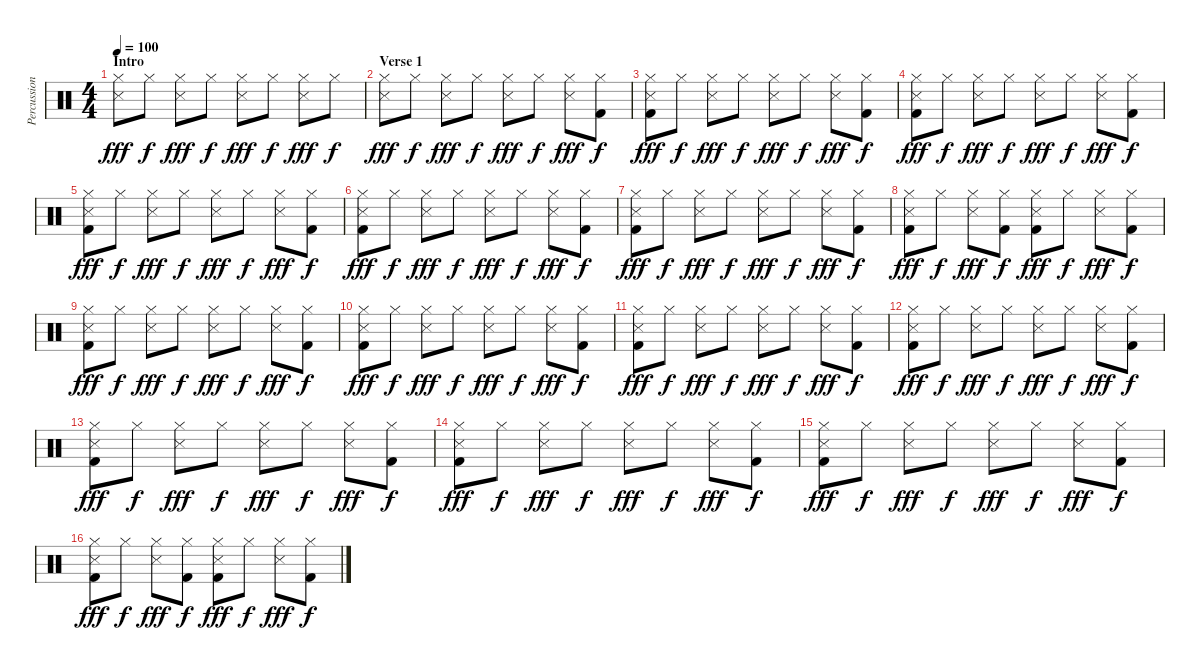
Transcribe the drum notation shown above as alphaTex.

\track ("Percussion" "Percussion") {instrument percussion}
\staff {score}
\articulation defaults
\ts (4 4)
\section ("" "Intro")
\tempo 100
\clef neutral
\ks c
("Hi-Hat (closed)" "Snare (side stick) 3").8{dy fff} "Hi-Hat (closed)".8{dy f} ("Hi-Hat (closed)" "Snare (side stick) 3").8{dy fff} "Hi-Hat (closed)".8{dy f} ("Snare (side stick) 3" "Hi-Hat (closed)").8{dy fff} "Hi-Hat (closed)".8{dy f} ("Hi-Hat (closed)" "Snare (side stick) 3").8{dy fff} "Hi-Hat (closed)".8{dy f} |
\section ("" "Verse 1")
("Hi-Hat (closed)" "Snare (side stick) 3").8{dy fff} "Hi-Hat (closed)".8{dy f} ("Hi-Hat (closed)" "Snare (side stick) 3").8{dy fff} "Hi-Hat (closed)".8{dy f} ("Snare (side stick) 3" "Hi-Hat (closed)").8{dy fff} "Hi-Hat (closed)".8{dy f} ("Hi-Hat (closed)" "Snare (side stick) 3").8{dy fff} ("Hi-Hat (closed)" "Kick (hit) 2").8{dy f} |
("Hi-Hat (closed)" "Snare (side stick) 3" "Kick (hit) 2").8{dy fff} "Hi-Hat (closed)".8{dy f} ("Hi-Hat (closed)" "Snare (side stick) 3").8{dy fff} "Hi-Hat (closed)".8{dy f} ("Snare (side stick) 3" "Hi-Hat (closed)").8{dy fff} "Hi-Hat (closed)".8{dy f} ("Hi-Hat (closed)" "Snare (side stick) 3").8{dy fff} ("Hi-Hat (closed)" "Kick (hit) 2").8{dy f} |
("Hi-Hat (closed)" "Snare (side stick) 3" "Kick (hit) 2").8{dy fff} "Hi-Hat (closed)".8{dy f} ("Hi-Hat (closed)" "Snare (side stick) 3").8{dy fff} "Hi-Hat (closed)".8{dy f} ("Snare (side stick) 3" "Hi-Hat (closed)").8{dy fff} "Hi-Hat (closed)".8{dy f} ("Hi-Hat (closed)" "Snare (side stick) 3").8{dy fff} ("Hi-Hat (closed)" "Kick (hit) 2").8{dy f} |
("Hi-Hat (closed)" "Snare (side stick) 3" "Kick (hit) 2").8{dy fff} "Hi-Hat (closed)".8{dy f} ("Hi-Hat (closed)" "Snare (side stick) 3").8{dy fff} "Hi-Hat (closed)".8{dy f} ("Snare (side stick) 3" "Hi-Hat (closed)").8{dy fff} "Hi-Hat (closed)".8{dy f} ("Hi-Hat (closed)" "Snare (side stick) 3").8{dy fff} ("Hi-Hat (closed)" "Kick (hit) 2").8{dy f} |
("Hi-Hat (closed)" "Snare (side stick) 3" "Kick (hit) 2").8{dy fff} "Hi-Hat (closed)".8{dy f} ("Hi-Hat (closed)" "Snare (side stick) 3").8{dy fff} "Hi-Hat (closed)".8{dy f} ("Snare (side stick) 3" "Hi-Hat (closed)").8{dy fff} "Hi-Hat (closed)".8{dy f} ("Hi-Hat (closed)" "Snare (side stick) 3").8{dy fff} ("Hi-Hat (closed)" "Kick (hit) 2").8{dy f} |
("Hi-Hat (closed)" "Snare (side stick) 3" "Kick (hit) 2").8{dy fff} "Hi-Hat (closed)".8{dy f} ("Hi-Hat (closed)" "Snare (side stick) 3").8{dy fff} "Hi-Hat (closed)".8{dy f} ("Snare (side stick) 3" "Hi-Hat (closed)").8{dy fff} "Hi-Hat (closed)".8{dy f} ("Hi-Hat (closed)" "Snare (side stick) 3").8{dy fff} ("Hi-Hat (closed)" "Kick (hit) 2").8{dy f} |
("Hi-Hat (closed)" "Snare (side stick) 3" "Kick (hit) 2").8{dy fff} "Hi-Hat (closed)".8{dy f} ("Hi-Hat (closed)" "Snare (side stick) 3").8{dy fff} ("Hi-Hat (closed)" "Kick (hit) 2").8{dy f} ("Snare (side stick) 3" "Hi-Hat (closed)" "Kick (hit) 2").8{dy fff} "Hi-Hat (closed)".8{dy f} ("Hi-Hat (closed)" "Snare (side stick) 3").8{dy fff} ("Hi-Hat (closed)" "Kick (hit) 2").8{dy f} |
("Hi-Hat (closed)" "Snare (side stick) 3" "Kick (hit) 2").8{dy fff} "Hi-Hat (closed)".8{dy f} ("Hi-Hat (closed)" "Snare (side stick) 3").8{dy fff} "Hi-Hat (closed)".8{dy f} ("Snare (side stick) 3" "Hi-Hat (closed)").8{dy fff} "Hi-Hat (closed)".8{dy f} ("Hi-Hat (closed)" "Snare (side stick) 3").8{dy fff} ("Hi-Hat (closed)" "Kick (hit) 2").8{dy f} |
("Hi-Hat (closed)" "Snare (side stick) 3" "Kick (hit) 2").8{dy fff} "Hi-Hat (closed)".8{dy f} ("Hi-Hat (closed)" "Snare (side stick) 3").8{dy fff} "Hi-Hat (closed)".8{dy f} ("Snare (side stick) 3" "Hi-Hat (closed)").8{dy fff} "Hi-Hat (closed)".8{dy f} ("Hi-Hat (closed)" "Snare (side stick) 3").8{dy fff} ("Hi-Hat (closed)" "Kick (hit) 2").8{dy f} |
("Hi-Hat (closed)" "Snare (side stick) 3" "Kick (hit) 2").8{dy fff} "Hi-Hat (closed)".8{dy f} ("Hi-Hat (closed)" "Snare (side stick) 3").8{dy fff} "Hi-Hat (closed)".8{dy f} ("Snare (side stick) 3" "Hi-Hat (closed)").8{dy fff} "Hi-Hat (closed)".8{dy f} ("Hi-Hat (closed)" "Snare (side stick) 3").8{dy fff} ("Hi-Hat (closed)" "Kick (hit) 2").8{dy f} |
("Hi-Hat (closed)" "Snare (side stick) 3" "Kick (hit) 2").8{dy fff} "Hi-Hat (closed)".8{dy f} ("Hi-Hat (closed)" "Snare (side stick) 3").8{dy fff} "Hi-Hat (closed)".8{dy f} ("Snare (side stick) 3" "Hi-Hat (closed)").8{dy fff} "Hi-Hat (closed)".8{dy f} ("Hi-Hat (closed)" "Snare (side stick) 3").8{dy fff} ("Hi-Hat (closed)" "Kick (hit) 2").8{dy f} |
("Hi-Hat (closed)" "Snare (side stick) 3" "Kick (hit) 2").8{dy fff} "Hi-Hat (closed)".8{dy f} ("Hi-Hat (closed)" "Snare (side stick) 3").8{dy fff} "Hi-Hat (closed)".8{dy f} ("Snare (side stick) 3" "Hi-Hat (closed)").8{dy fff} "Hi-Hat (closed)".8{dy f} ("Hi-Hat (closed)" "Snare (side stick) 3").8{dy fff} ("Hi-Hat (closed)" "Kick (hit) 2").8{dy f} |
("Hi-Hat (closed)" "Snare (side stick) 3" "Kick (hit) 2").8{dy fff} "Hi-Hat (closed)".8{dy f} ("Hi-Hat (closed)" "Snare (side stick) 3").8{dy fff} "Hi-Hat (closed)".8{dy f} ("Snare (side stick) 3" "Hi-Hat (closed)").8{dy fff} "Hi-Hat (closed)".8{dy f} ("Hi-Hat (closed)" "Snare (side stick) 3").8{dy fff} ("Hi-Hat (closed)" "Kick (hit) 2").8{dy f} |
("Hi-Hat (closed)" "Snare (side stick) 3" "Kick (hit) 2").8{dy fff} "Hi-Hat (closed)".8{dy f} ("Hi-Hat (closed)" "Snare (side stick) 3").8{dy fff} "Hi-Hat (closed)".8{dy f} ("Snare (side stick) 3" "Hi-Hat (closed)").8{dy fff} "Hi-Hat (closed)".8{dy f} ("Hi-Hat (closed)" "Snare (side stick) 3").8{dy fff} ("Hi-Hat (closed)" "Kick (hit) 2").8{dy f} |
("Hi-Hat (closed)" "Snare (side stick) 3" "Kick (hit) 2").8{dy fff} "Hi-Hat (closed)".8{dy f} ("Hi-Hat (closed)" "Snare (side stick) 3").8{dy fff} ("Hi-Hat (closed)" "Kick (hit) 2").8{dy f} ("Snare (side stick) 3" "Hi-Hat (closed)" "Kick (hit) 2").8{dy fff} "Hi-Hat (closed)".8{dy f} ("Hi-Hat (closed)" "Snare (side stick) 3").8{dy fff} ("Hi-Hat (closed)" "Kick (hit) 2").8{dy f}
